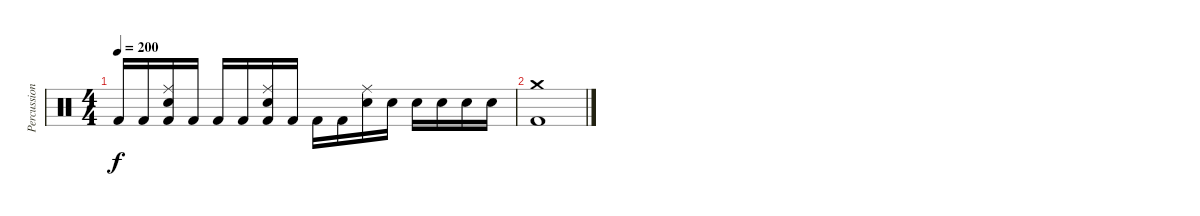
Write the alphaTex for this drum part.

\track ("Percussion" "Percussion") {instrument percussion}
\staff {score}
\articulation defaults
\ts (4 4)
\tempo 200
\clef neutral
\ks c "Kick (hit) 2".16{dy f} "Kick (hit) 2".16
("Ride (middle)" "Electric Snare (hit)" "Kick (hit) 2").16 "Kick (hit) 2".16 "Kick (hit) 2".16 "Kick (hit) 2".16 ("Ride (middle)" "Electric Snare (hit)" "Kick (hit) 2").16 "Kick (hit) 2".16 "Kick (hit) 2".16 "Kick (hit) 2".16 ("Ride (middle)" "Electric Snare (hit)").16 "Electric Snare (hit)".16 "Electric Snare (hit)".16 "Electric Snare (hit)".16 "Electric Snare (hit)".16 "Electric Snare (hit)".16 |
("Crash medium (hit)" "Kick (hit) 2").1
